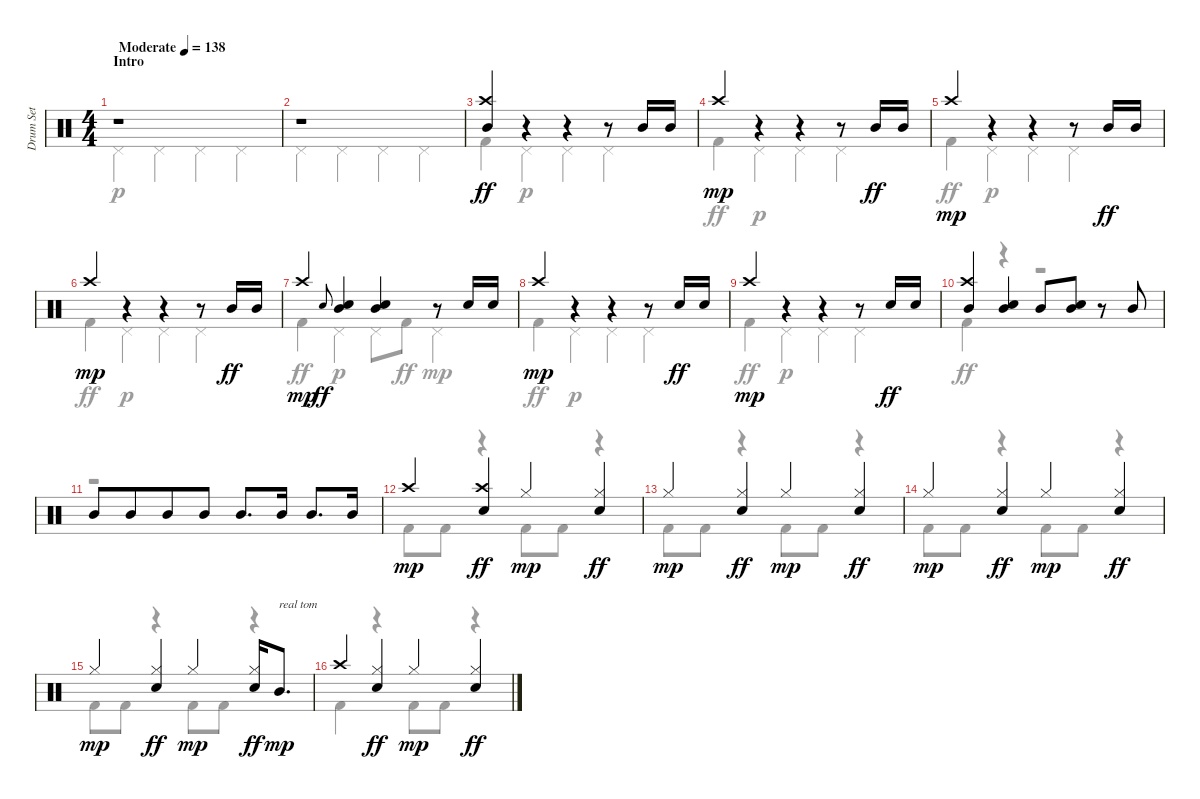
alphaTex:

\track ("Drum Set" "Drum Set") {instrument percussion}
\staff {score}
\articulation defaults
\voice
\ts (4 4)
\section ("" "Intro")
\tempo (138 "Moderate")
\clef neutral
\ks c
r.1{dy ff} |
r.1 |
("Crash high (hit)" "Mid Tom (hit)").4 r.4 r.4 r.8 "Mid Tom (hit)".16 "Mid Tom (hit)".16 |
"Crash high (hit)".4{dy mp} r.4 r.4 r.8 "Mid Tom (hit)".16{dy ff} "Mid Tom (hit)".16 |
"Crash high (hit)".4{dy mp} r.4 r.4 r.8 "Mid Tom (hit)".16{dy ff} "Mid Tom (hit)".16 |
"Crash high (hit)".4{dy mp} r.4 r.4 r.8 "Mid Tom (hit)".16{dy ff} "Mid Tom (hit)".16 |
"Crash high (hit)".4{dy mp} "Electric Snare (hit)".8{gr onbeat dy ff} ("Electric Snare (hit)" "Mid Tom (hit)").4 ("Electric Snare (hit)" "Mid Tom (hit)").4 r.8 "Electric Snare (hit)".16 "Electric Snare (hit)".16 |
"Crash high (hit)".4{dy mp} r.4 r.4 r.8 "Electric Snare (hit)".16{dy ff} "Electric Snare (hit)".16 |
"Crash high (hit)".4{dy mp} r.4 r.4 r.8 "Electric Snare (hit)".16{dy ff} "Electric Snare (hit)".16 |
("Crash high (hit)" "Mid Tom (hit)").4 ("Electric Snare (hit)" "Mid Tom (hit)").4 "Mid Tom (hit)".8 ("Mid Tom (hit)" "Electric Snare (hit)").8 r.8 "Mid Tom (hit)".8 |
"Mid Tom (hit)".8{beam Up} "Mid Tom (hit)".8{beam Up beam merge} "Mid Tom (hit)".8{beam Up} "Mid Tom (hit)".8{beam Up} "Mid Tom (hit)".8{d beam Up} "Mid Tom (hit)".16{beam Up} "Mid Tom (hit)".8{d beam Up} "Mid Tom (hit)".16{beam Up} |
"Crash high (hit)".4{dy mp} ("Crash high (hit)" "Electric Snare (hit)").4{dy ff} "Hi-Hat (closed)".4{dy mp} ("Hi-Hat (closed)" "Electric Snare (hit)").4{dy ff} |
"Hi-Hat (closed)".4{dy mp} ("Hi-Hat (closed)" "Electric Snare (hit)").4{dy ff} "Hi-Hat (closed)".4{dy mp} ("Hi-Hat (closed)" "Electric Snare (hit)").4{dy ff} |
"Hi-Hat (closed)".4{dy mp} ("Hi-Hat (closed)" "Electric Snare (hit)").4{dy ff} "Hi-Hat (closed)".4{dy mp} ("Hi-Hat (closed)" "Electric Snare (hit)").4{dy ff} |
"Hi-Hat (closed)".4{dy mp} ("Hi-Hat (closed)" "Electric Snare (hit)").4{dy ff} "Hi-Hat (closed)".4{dy mp} ("Hi-Hat (closed)" "Electric Snare (hit)").16{dy ff} "Mid Tom (hit)".8{d txt "real tom" dy mp} |
"Crash high (hit)".4 ("Hi-Hat (closed)" "Electric Snare (hit)").4{dy ff} "Hi-Hat (closed)".4{dy mp} ("Hi-Hat (closed)" "Electric Snare (hit)").4{dy ff}
\voice
\clef neutral
\ottava regular
\simile none
\ks c "Pedal Hi-Hat (hit)".4{dy p} "Pedal Hi-Hat (hit)".4 "Pedal Hi-Hat (hit)".4 "Pedal Hi-Hat (hit)".4
|
"Pedal Hi-Hat (hit)".4 "Pedal Hi-Hat (hit)".4 "Pedal Hi-Hat (hit)".4 "Pedal Hi-Hat (hit)".4 |
"Kick (hit) 2".4{dy ff} "Pedal Hi-Hat (hit)".4{dy p} "Pedal Hi-Hat (hit)".4 "Pedal Hi-Hat (hit)".4 |
"Kick (hit) 2".4{dy ff} "Pedal Hi-Hat (hit)".4{dy p} "Pedal Hi-Hat (hit)".4 "Pedal Hi-Hat (hit)".4 |
"Kick (hit) 2".4{dy ff} "Pedal Hi-Hat (hit)".4{dy p} "Pedal Hi-Hat (hit)".4 "Pedal Hi-Hat (hit)".4 |
"Kick (hit) 2".4{dy ff} "Pedal Hi-Hat (hit)".4{dy p} "Pedal Hi-Hat (hit)".4 "Pedal Hi-Hat (hit)".4 |
"Kick (hit) 2".4{dy ff} "Pedal Hi-Hat (hit)".4{dy p} "Pedal Hi-Hat (hit)".8 "Kick (hit) 2".8{dy ff} "Pedal Hi-Hat (hit)".4{dy mp} |
"Kick (hit) 2".4{dy ff} "Pedal Hi-Hat (hit)".4{dy p} "Pedal Hi-Hat (hit)".4 "Pedal Hi-Hat (hit)".4 |
"Kick (hit) 2".4{dy ff} "Pedal Hi-Hat (hit)".4{dy p} "Pedal Hi-Hat (hit)".4 "Pedal Hi-Hat (hit)".4 |
"Kick (hit) 2".4{dy ff} r.4 r.2 |
r.1 |
"Kick (hit) 2".8 "Kick (hit) 2".8 r.4 "Kick (hit) 2".8 "Kick (hit) 2".8 r.4 |
"Kick (hit) 2".8 "Kick (hit) 2".8 r.4 "Kick (hit) 2".8 "Kick (hit) 2".8 r.4 |
"Kick (hit) 2".8 "Kick (hit) 2".8 r.4 "Kick (hit) 2".8 "Kick (hit) 2".8 r.4 |
"Kick (hit) 2".8 "Kick (hit) 2".8 r.4 "Kick (hit) 2".8 "Kick (hit) 2".8 r.4 |
"Kick (hit) 2".4 r.4 "Kick (hit) 2".8 "Kick (hit) 2".8 r.4
